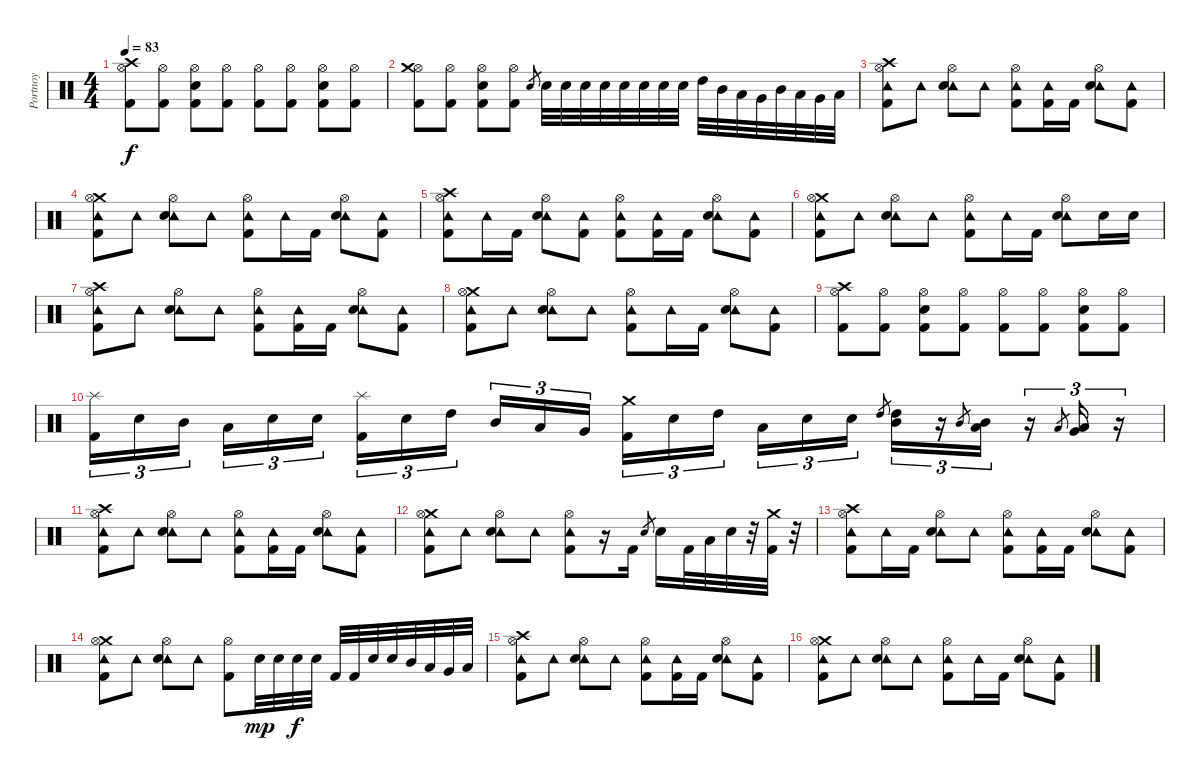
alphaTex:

\track ("Portnoy" "Portnoy") {instrument percussion}
\staff {score}
\articulation defaults
\ts (4 4)
\tempo 83
\clef neutral
\ks c
("Hi-Hat (open)" "Crash high (hit)" "Kick (hit) 2").8{dy f} ("Hi-Hat (open)" "Kick (hit) 2").8 ("Hi-Hat (open)" "Electric Snare (hit)" "Kick (hit) 2").8 ("Hi-Hat (open)" "Kick (hit) 2").8 ("Hi-Hat (open)" "Kick (hit) 2").8 ("Hi-Hat (open)" "Kick (hit) 2").8 ("Hi-Hat (open)" "Electric Snare (hit)" "Kick (hit) 2").8 ("Hi-Hat (open)" "Kick (hit) 2").8 |
("Hi-Hat (open)" "Crash medium (hit)" "Kick (hit) 2").8 ("Hi-Hat (open)" "Kick (hit) 2").8 ("Hi-Hat (open)" "Electric Snare (hit)" "Kick (hit) 2").8 ("Hi-Hat (open)" "Kick (hit) 2").8 "Electric Snare (hit)".8{gr} "Electric Snare (hit)".32 "Electric Snare (hit)".32 "Electric Snare (hit)".32 "Electric Snare (hit)".32 "Electric Snare (hit)".32 "Electric Snare (hit)".32 "Electric Snare (hit)".32 "Electric Snare (hit)".32 "High Tom (hit)".32 "Mid Tom (hit)".32 "Low Tom (hit)".32 "Very Low Tom (hit)".32 "Mid Tom (hit)".32 "Low Tom (hit)".32 "Very Low Tom (hit)".32 "Low Floor Tom (hit)".32 |
("Crash high (hit)" "Hi-Hat (open)" "Tambourine (hit)" "Kick (hit) 2").8 "Tambourine (hit)".8 ("Hi-Hat (open)" "Tambourine (hit)" "Electric Snare (hit)").8 "Tambourine (hit)".8 ("Hi-Hat (open)" "Tambourine (hit)" "Kick (hit) 2").8 ("Tambourine (hit)" "Kick (hit) 2").16 "Kick (hit) 2".16 ("Hi-Hat (open)" "Tambourine (hit)" "Electric Snare (hit)").8 ("Tambourine (hit)" "Kick (hit) 2").8 |
("Crash medium (hit)" "Hi-Hat (open)" "Tambourine (hit)" "Kick (hit) 2").8 "Tambourine (hit)".8 ("Hi-Hat (open)" "Tambourine (hit)" "Electric Snare (hit)").8 "Tambourine (hit)".8 ("Hi-Hat (open)" "Tambourine (hit)" "Kick (hit) 2").8 "Tambourine (hit)".16 "Kick (hit) 2".16 ("Hi-Hat (open)" "Tambourine (hit)" "Electric Snare (hit)").8 ("Tambourine (hit)" "Kick (hit) 2").8 |
("Crash high (hit)" "Hi-Hat (open)" "Tambourine (hit)" "Kick (hit) 2").8 "Tambourine (hit)".16 "Kick (hit) 2".16 ("Hi-Hat (open)" "Tambourine (hit)" "Electric Snare (hit)").8 ("Tambourine (hit)" "Kick (hit) 2").8 ("Hi-Hat (open)" "Tambourine (hit)" "Kick (hit) 2").8 ("Tambourine (hit)" "Kick (hit) 2").16 "Kick (hit) 2".16 ("Hi-Hat (open)" "Tambourine (hit)" "Electric Snare (hit)").8 ("Tambourine (hit)" "Kick (hit) 2").8 |
("Crash medium (hit)" "Hi-Hat (open)" "Tambourine (hit)" "Kick (hit) 2").8 "Tambourine (hit)".8 ("Hi-Hat (open)" "Tambourine (hit)" "Electric Snare (hit)").8 "Tambourine (hit)".8 ("Hi-Hat (open)" "Tambourine (hit)" "Kick (hit) 2").8 "Tambourine (hit)".16 "Kick (hit) 2".16 ("Hi-Hat (open)" "Tambourine (hit)" "Electric Snare (hit)").8 "Electric Snare (hit)".16 "Electric Snare (hit)".16 |
("Crash high (hit)" "Hi-Hat (open)" "Tambourine (hit)" "Kick (hit) 2").8 "Tambourine (hit)".8 ("Hi-Hat (open)" "Tambourine (hit)" "Electric Snare (hit)").8 "Tambourine (hit)".8 ("Hi-Hat (open)" "Tambourine (hit)" "Kick (hit) 2").8 ("Tambourine (hit)" "Kick (hit) 2").16 "Kick (hit) 2".16 ("Hi-Hat (open)" "Tambourine (hit)" "Electric Snare (hit)").8 ("Tambourine (hit)" "Kick (hit) 2").8 |
("Crash medium (hit)" "Hi-Hat (open)" "Tambourine (hit)" "Kick (hit) 2").8 "Tambourine (hit)".8 ("Hi-Hat (open)" "Tambourine (hit)" "Electric Snare (hit)").8 "Tambourine (hit)".8 ("Hi-Hat (open)" "Tambourine (hit)" "Kick (hit) 2").8 "Tambourine (hit)".16 "Kick (hit) 2".16 ("Hi-Hat (open)" "Tambourine (hit)" "Electric Snare (hit)").8 ("Tambourine (hit)" "Kick (hit) 2").8 |
("Hi-Hat (open)" "Crash high (hit)" "Kick (hit) 2").8 ("Hi-Hat (open)" "Kick (hit) 2").8 ("Hi-Hat (open)" "Electric Snare (hit)" "Kick (hit) 2").8 ("Hi-Hat (open)" "Kick (hit) 2").8 ("Hi-Hat (open)" "Kick (hit) 2").8 ("Hi-Hat (open)" "Kick (hit) 2").8 ("Hi-Hat (open)" "Electric Snare (hit)" "Kick (hit) 2").8 ("Hi-Hat (open)" "Kick (hit) 2").8 |
("Splash (hit)" "Kick (hit) 2").16{tu (3 2)} "Electric Snare (hit)".16{tu (3 2)} "Mid Tom (hit)".16{tu (3 2)} "Low Tom (hit)".16{tu (3 2)} "Electric Snare (hit)".16{tu (3 2)} "Electric Snare (hit)".16{tu (3 2)} ("Splash (hit)" "Kick (hit) 2").16{tu (3 2)} "Electric Snare (hit)".16{tu (3 2)} "High Tom (hit)".16{tu (3 2)} "Mid Tom (hit)".16{tu (3 2)} "Low Tom (hit)".16{tu (3 2)} "Very Low Tom (hit)".16{tu (3 2)} ("Crash medium (hit)" "Kick (hit) 2").16{tu (3 2)} "Electric Snare (hit)".16{tu (3 2)} "High Tom (hit)".16{tu (3 2)} "Low Tom (hit)".16{tu (3 2)} "Electric Snare (hit)".16{tu (3 2)} "Electric Snare (hit)".16{tu (3 2)} "High Tom (hit)".8{gr} ("High Tom (hit)" "Mid Tom (hit)").16{tu (3 2)} r.16{tu (3 2)} "Mid Tom (hit)".8{gr} ("Mid Tom (hit)" "Low Tom (hit)").16{tu (3 2)} r.16{tu (3 2)} "Low Tom (hit)".8{gr} ("Low Tom (hit)" "Very Low Tom (hit)").16{tu (3 2)} r.16{tu (3 2)} |
("Crash high (hit)" "Hi-Hat (open)" "Tambourine (hit)" "Kick (hit) 2").8 "Tambourine (hit)".8 ("Hi-Hat (open)" "Tambourine (hit)" "Electric Snare (hit)").8 "Tambourine (hit)".8 ("Hi-Hat (open)" "Tambourine (hit)" "Kick (hit) 2").8 ("Tambourine (hit)" "Kick (hit) 2").16 "Kick (hit) 2".16 ("Hi-Hat (open)" "Tambourine (hit)" "Electric Snare (hit)").8 ("Tambourine (hit)" "Kick (hit) 2").8 |
("Crash medium (hit)" "Hi-Hat (open)" "Tambourine (hit)" "Kick (hit) 2").8 "Tambourine (hit)".8 ("Hi-Hat (open)" "Tambourine (hit)" "Electric Snare (hit)").8 "Tambourine (hit)".8 ("Hi-Hat (open)" "Tambourine (hit)" "Kick (hit) 2").8 r.16 "Kick (hit) 2".16 "Electric Snare (hit)".8{gr} "Electric Snare (hit)".16 "Kick (hit) 2".32 "Low Tom (hit)".32 "Electric Snare (hit)".32 r.32 ("Crash medium (hit)" "Kick (hit) 2").32 r.32 |
("Crash high (hit)" "Hi-Hat (open)" "Tambourine (hit)" "Kick (hit) 2").8 "Tambourine (hit)".16 "Kick (hit) 2".16 ("Hi-Hat (open)" "Tambourine (hit)" "Electric Snare (hit)").8 "Tambourine (hit)".8 ("Hi-Hat (open)" "Tambourine (hit)" "Kick (hit) 2").8 ("Tambourine (hit)" "Kick (hit) 2").16 "Kick (hit) 2".16 ("Hi-Hat (open)" "Tambourine (hit)" "Electric Snare (hit)").8 ("Tambourine (hit)" "Kick (hit) 2").8 |
("Crash medium (hit)" "Hi-Hat (open)" "Tambourine (hit)" "Kick (hit) 2").8 "Tambourine (hit)".8 ("Hi-Hat (open)" "Tambourine (hit)" "Electric Snare (hit)").8 "Tambourine (hit)".8 ("Hi-Hat (open)" "Kick (hit) 2").8 "Electric Snare (hit)".32{dy mp} "Electric Snare (hit)".32 "Electric Snare (hit)".32{dy f} "Electric Snare (hit)".32 "Kick (hit) 2".32 "Kick (hit) 2".32 "Electric Snare (hit)".32 "Electric Snare (hit)".32 "Mid Tom (hit)".32 "Low Tom (hit)".32 "Very Low Tom (hit)".32 "Low Floor Tom (hit)".32 |
("Crash high (hit)" "Hi-Hat (open)" "Tambourine (hit)" "Kick (hit) 2").8 "Tambourine (hit)".8 ("Hi-Hat (open)" "Tambourine (hit)" "Electric Snare (hit)").8 "Tambourine (hit)".8 ("Hi-Hat (open)" "Tambourine (hit)" "Kick (hit) 2").8 ("Tambourine (hit)" "Kick (hit) 2").16 "Kick (hit) 2".16 ("Hi-Hat (open)" "Tambourine (hit)" "Electric Snare (hit)").8 ("Tambourine (hit)" "Kick (hit) 2").8 |
("Crash medium (hit)" "Hi-Hat (open)" "Tambourine (hit)" "Kick (hit) 2").8 "Tambourine (hit)".8 ("Hi-Hat (open)" "Tambourine (hit)" "Electric Snare (hit)").8 "Tambourine (hit)".8 ("Hi-Hat (open)" "Tambourine (hit)" "Kick (hit) 2").8 "Tambourine (hit)".16 "Kick (hit) 2".16 ("Hi-Hat (open)" "Tambourine (hit)" "Electric Snare (hit)").8 ("Tambourine (hit)" "Kick (hit) 2").8
